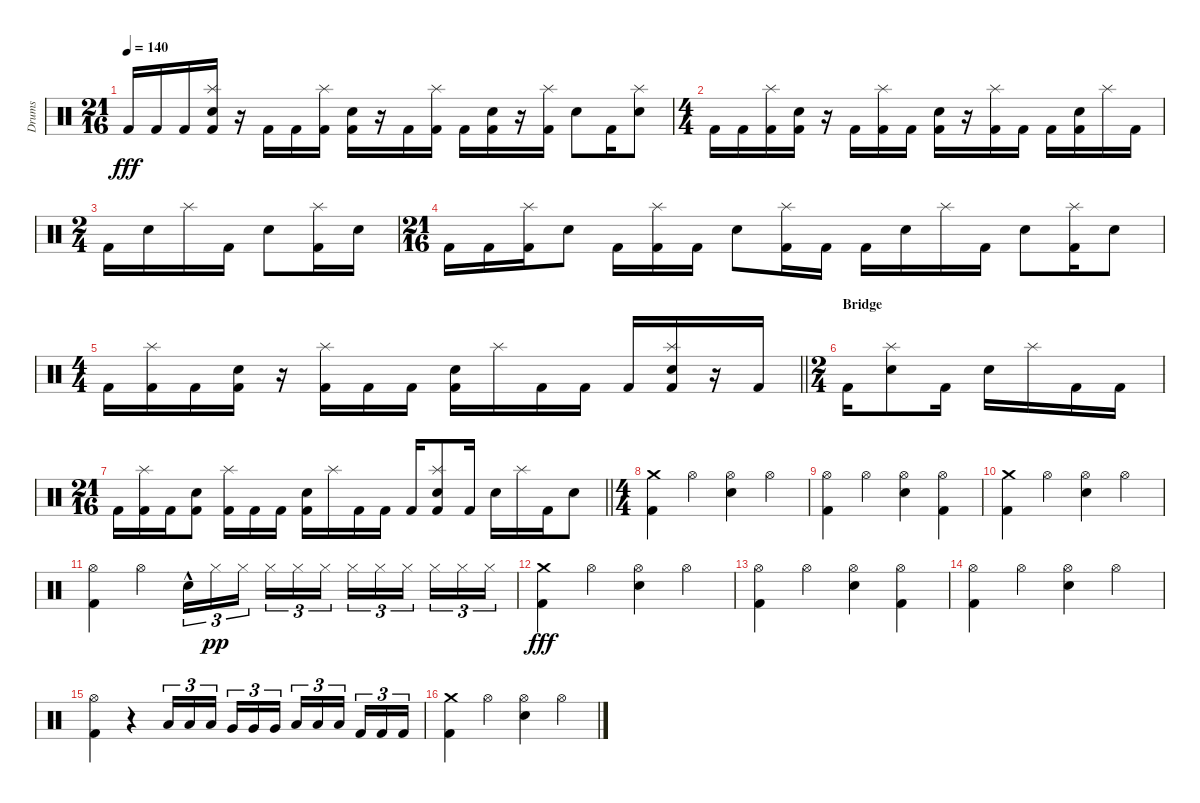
\track ("Drums" "Drums") {instrument percussion}
\staff {score}
\articulation defaults
\ts (21 16)
\tempo 140
\clef neutral
\ks c "Kick (hit) 2".16{dy fff} "Kick (hit) 2".16 "Kick (hit) 2".16
("Splash (hit)" "Electric Snare (hit)" "Kick (hit) 2").16 r.16 "Kick (hit) 2".16 "Kick (hit) 2".16 ("Splash (hit)" "Kick (hit) 2").16 ("Electric Snare (hit)" "Kick (hit) 2").16 r.16 "Kick (hit) 2".16 ("Splash (hit)" "Kick (hit) 2").16 "Kick (hit) 2".16 ("Electric Snare (hit)" "Kick (hit) 2").16 r.16 ("Splash (hit)" "Kick (hit) 2").16 "Electric Snare (hit)".8 "Kick (hit) 2".16 ("Splash (hit)" "Electric Snare (hit)").8 |
\ts (4 4)
"Kick (hit) 2".16 "Kick (hit) 2".16 ("Splash (hit)" "Kick (hit) 2").16 ("Electric Snare (hit)" "Kick (hit) 2").16 r.16 "Kick (hit) 2".16 ("Splash (hit)" "Kick (hit) 2").16 "Kick (hit) 2".16 ("Electric Snare (hit)" "Kick (hit) 2").16 r.16 ("Splash (hit)" "Kick (hit) 2").16 "Kick (hit) 2".16 "Kick (hit) 2".16 ("Electric Snare (hit)" "Kick (hit) 2").16 "Splash (hit)".16 "Kick (hit) 2".16 |
\ts (2 4)
"Kick (hit) 2".16 "Electric Snare (hit)".16 "Splash (hit)".16 "Kick (hit) 2".16 "Electric Snare (hit)".8 ("Splash (hit)" "Kick (hit) 2").16 "Electric Snare (hit)".16 |
\ts (21 16)
"Kick (hit) 2".16 "Kick (hit) 2".16 ("Splash (hit)" "Kick (hit) 2").16 "Electric Snare (hit)".8 "Kick (hit) 2".16 ("Splash (hit)" "Kick (hit) 2").16 "Kick (hit) 2".16 "Electric Snare (hit)".8 ("Splash (hit)" "Kick (hit) 2").16 "Kick (hit) 2".16 "Kick (hit) 2".16 "Electric Snare (hit)".16 "Splash (hit)".16 "Kick (hit) 2".16 "Electric Snare (hit)".8 ("Splash (hit)" "Kick (hit) 2").16 "Electric Snare (hit)".8 |
\ts (4 4)
\barLineRight lightlight "Kick (hit) 2".16
("Splash (hit)" "Kick (hit) 2").16 "Kick (hit) 2".16 ("Electric Snare (hit)" "Kick (hit) 2").16 r.16 ("Splash (hit)" "Kick (hit) 2").16 "Kick (hit) 2".16 "Kick (hit) 2".16 ("Electric Snare (hit)" "Kick (hit) 2").16 "Splash (hit)".16 "Kick (hit) 2".16 "Kick (hit) 2".16 "Kick (hit) 2".16 ("Splash (hit)" "Electric Snare (hit)" "Kick (hit) 2").16 r.16 "Kick (hit) 2".16 |
\ts (2 4)
\section ("" "Bridge")
"Kick (hit) 2".16 ("Splash (hit)" "Electric Snare (hit)").8 "Kick (hit) 2".16 "Electric Snare (hit)".16 "Splash (hit)".16 "Kick (hit) 2".16 "Kick (hit) 2".16 |
\ts (21 16)
\barLineRight lightlight "Kick (hit) 2".16
("Splash (hit)" "Kick (hit) 2").16 "Kick (hit) 2".16 ("Electric Snare (hit)" "Kick (hit) 2").8 ("Splash (hit)" "Kick (hit) 2").16 "Kick (hit) 2".16 "Kick (hit) 2".16 ("Electric Snare (hit)" "Kick (hit) 2").16 "Splash (hit)".16 "Kick (hit) 2".16 "Kick (hit) 2".16 "Kick (hit) 2".16 ("Splash (hit)" "Electric Snare (hit)" "Kick (hit) 2").8 "Kick (hit) 2".16 "Electric Snare (hit)".16 "Splash (hit)".16 "Kick (hit) 2".16 "Electric Snare (hit)".8 |
\ts (4 4)
("Crash medium (hit)" "Kick (hit) 2").4 "Hi-Hat (open)".4 ("Hi-Hat (open)" "Electric Snare (hit)").4 "Hi-Hat (open)".4 |
("Hi-Hat (open)" "Kick (hit) 2").4 "Hi-Hat (open)".4 ("Hi-Hat (open)" "Electric Snare (hit)").4 ("Hi-Hat (open)" "Kick (hit) 2").4 |
("Crash medium (hit)" "Kick (hit) 2").4 "Hi-Hat (open)".4 ("Hi-Hat (open)" "Electric Snare (hit)").4 "Hi-Hat (open)".4 |
("Hi-Hat (open)" "Kick (hit) 2").4 "Hi-Hat (open)".4 "Electric Snare (hit)"{hac}.16{tu (3 2)} "Hi-Hat (closed)".16{tu (3 2) dy pp} "Hi-Hat (closed)".16{tu (3 2) beam splitsecondary} "Hi-Hat (closed)".16{tu (3 2)} "Hi-Hat (closed)".16{tu (3 2)} "Hi-Hat (closed)".16{tu (3 2)} "Hi-Hat (closed)".16{tu (3 2)} "Hi-Hat (closed)".16{tu (3 2)} "Hi-Hat (closed)".16{tu (3 2) beam splitsecondary} "Hi-Hat (closed)".16{tu (3 2)} "Hi-Hat (closed)".16{tu (3 2)} "Hi-Hat (closed)".16{tu (3 2)} |
("Crash medium (hit)" "Kick (hit) 2").4{dy fff} "Hi-Hat (open)".4 ("Hi-Hat (open)" "Electric Snare (hit)").4 "Hi-Hat (open)".4 |
("Hi-Hat (open)" "Kick (hit) 2").4 "Hi-Hat (open)".4 ("Hi-Hat (open)" "Electric Snare (hit)").4 ("Hi-Hat (open)" "Kick (hit) 2").4 |
("Hi-Hat (open)" "Kick (hit) 2").4 "Hi-Hat (open)".4 ("Hi-Hat (open)" "Electric Snare (hit)").4 "Hi-Hat (open)".4 |
("Hi-Hat (open)" "Kick (hit) 2").4 r.4 "Low Tom (hit)".16{tu (3 2)} "Low Tom (hit)".16{tu (3 2)} "Low Tom (hit)".16{tu (3 2) beam splitsecondary} "Very Low Tom (hit)".16{tu (3 2)} "Very Low Tom (hit)".16{tu (3 2)} "Very Low Tom (hit)".16{tu (3 2)} "Low Floor Tom (hit)".16{tu (3 2)} "Low Floor Tom (hit)".16{tu (3 2)} "Low Floor Tom (hit)".16{tu (3 2) beam splitsecondary} "Kick (hit) 2".16{tu (3 2)} "Kick (hit) 2".16{tu (3 2)} "Kick (hit) 2".16{tu (3 2)} |
("Crash medium (hit)" "Kick (hit) 2").4 "Hi-Hat (open)".4 ("Hi-Hat (open)" "Electric Snare (hit)").4 "Hi-Hat (open)".4
